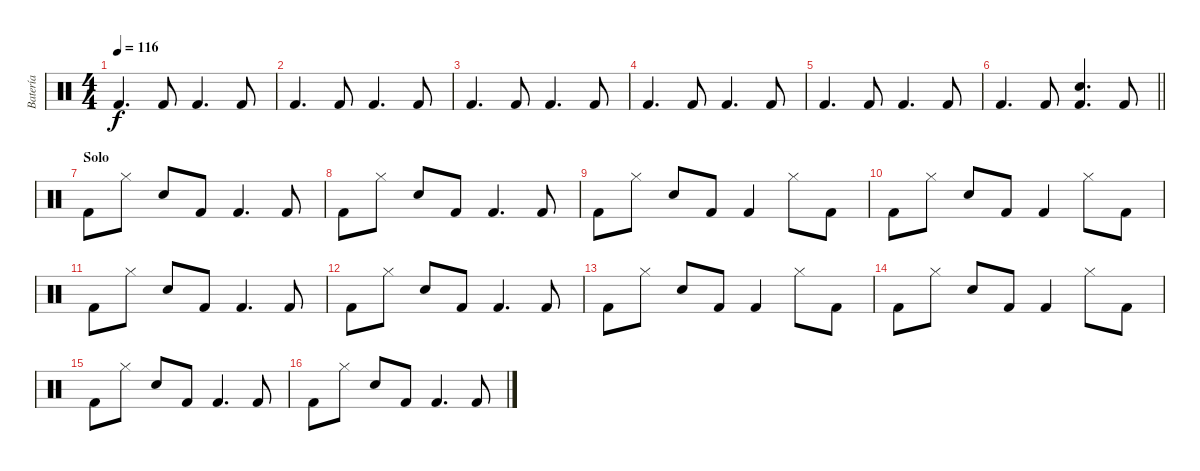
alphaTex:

\track ("Batería" "Batería") {instrument percussion}
\staff {score}
\articulation defaults
\ts (4 4)
\tempo 116
\clef neutral
\ks c "Kick (hit) 2".4{d dy f} "Kick (hit) 2".8 "Kick (hit) 2".4{d} "Kick (hit) 2".8
|
"Kick (hit) 2".4{d} "Kick (hit) 2".8 "Kick (hit) 2".4{d} "Kick (hit) 2".8 |
"Kick (hit) 2".4{d} "Kick (hit) 2".8 "Kick (hit) 2".4{d} "Kick (hit) 2".8 |
"Kick (hit) 2".4{d} "Kick (hit) 2".8 "Kick (hit) 2".4{d} "Kick (hit) 2".8 |
"Kick (hit) 2".4{d} "Kick (hit) 2".8 "Kick (hit) 2".4{d} "Kick (hit) 2".8 |
\barLineRight lightlight "Kick (hit) 2".4{d} "Kick (hit) 2".8
("Electric Snare (hit)" "Kick (hit) 2").4{d} "Kick (hit) 2".8 |
\section ("" "Solo")
"Kick (hit) 2".8 "Hi-Hat (closed)".8 "Electric Snare (hit)".8 "Kick (hit) 2".8 "Kick (hit) 2".4{d} "Kick (hit) 2".8 |
"Kick (hit) 2".8 "Hi-Hat (closed)".8 "Electric Snare (hit)".8 "Kick (hit) 2".8 "Kick (hit) 2".4{d} "Kick (hit) 2".8 |
"Kick (hit) 2".8 "Hi-Hat (closed)".8 "Electric Snare (hit)".8 "Kick (hit) 2".8 "Kick (hit) 2".4 "Hi-Hat (closed)".8 "Kick (hit) 2".8 |
"Kick (hit) 2".8 "Hi-Hat (closed)".8 "Electric Snare (hit)".8 "Kick (hit) 2".8 "Kick (hit) 2".4 "Hi-Hat (closed)".8 "Kick (hit) 2".8 |
"Kick (hit) 2".8 "Hi-Hat (closed)".8 "Electric Snare (hit)".8 "Kick (hit) 2".8 "Kick (hit) 2".4{d} "Kick (hit) 2".8 |
"Kick (hit) 2".8 "Hi-Hat (closed)".8 "Electric Snare (hit)".8 "Kick (hit) 2".8 "Kick (hit) 2".4{d} "Kick (hit) 2".8 |
"Kick (hit) 2".8 "Hi-Hat (closed)".8 "Electric Snare (hit)".8 "Kick (hit) 2".8 "Kick (hit) 2".4 "Hi-Hat (closed)".8 "Kick (hit) 2".8 |
"Kick (hit) 2".8 "Hi-Hat (closed)".8 "Electric Snare (hit)".8 "Kick (hit) 2".8 "Kick (hit) 2".4 "Hi-Hat (closed)".8 "Kick (hit) 2".8 |
"Kick (hit) 2".8 "Hi-Hat (closed)".8 "Electric Snare (hit)".8 "Kick (hit) 2".8 "Kick (hit) 2".4{d} "Kick (hit) 2".8 |
"Kick (hit) 2".8 "Hi-Hat (closed)".8 "Electric Snare (hit)".8 "Kick (hit) 2".8 "Kick (hit) 2".4{d} "Kick (hit) 2".8
